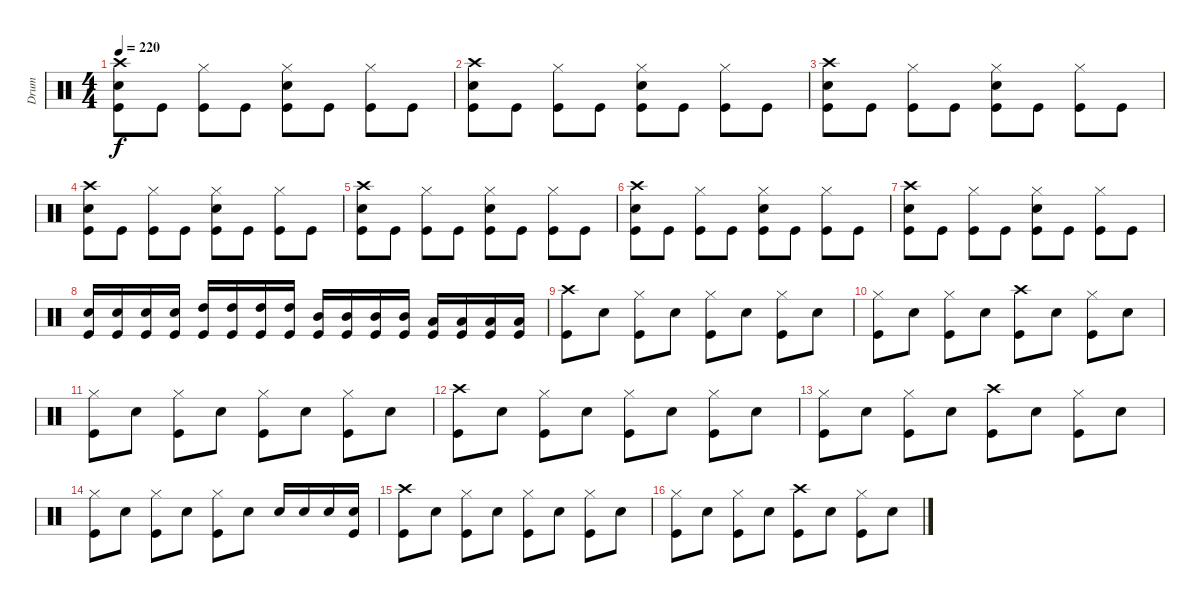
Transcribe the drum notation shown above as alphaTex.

\track ("Drum" "Drum") {instrument percussion}
\staff {score}
\articulation defaults
\ts (4 4)
\tempo 220
\clef neutral
\ks c
("Crash high (hit)" "Snare (hit) 2" "Kick (hit)").8{dy f} "Kick (hit)".8 ("Hi-Hat (closed)" "Kick (hit)").8 "Kick (hit)".8 ("Hi-Hat (closed)" "Snare (hit) 2" "Kick (hit)").8 "Kick (hit)".8 ("Hi-Hat (closed)" "Kick (hit)").8 "Kick (hit)".8 |
("Crash high (hit)" "Snare (hit) 2" "Kick (hit)").8 "Kick (hit)".8 ("Hi-Hat (closed)" "Kick (hit)").8 "Kick (hit)".8 ("Hi-Hat (closed)" "Snare (hit) 2" "Kick (hit)").8 "Kick (hit)".8 ("Hi-Hat (closed)" "Kick (hit)").8 "Kick (hit)".8 |
("Crash high (hit)" "Snare (hit) 2" "Kick (hit)").8 "Kick (hit)".8 ("Hi-Hat (closed)" "Kick (hit)").8 "Kick (hit)".8 ("Hi-Hat (closed)" "Snare (hit) 2" "Kick (hit)").8 "Kick (hit)".8 ("Hi-Hat (closed)" "Kick (hit)").8 "Kick (hit)".8 |
("Crash high (hit)" "Snare (hit) 2" "Kick (hit)").8 "Kick (hit)".8 ("Hi-Hat (closed)" "Kick (hit)").8 "Kick (hit)".8 ("Hi-Hat (closed)" "Snare (hit) 2" "Kick (hit)").8 "Kick (hit)".8 ("Hi-Hat (closed)" "Kick (hit)").8 "Kick (hit)".8 |
("Crash high (hit)" "Snare (hit) 2" "Kick (hit)").8 "Kick (hit)".8 ("Hi-Hat (closed)" "Kick (hit)").8 "Kick (hit)".8 ("Hi-Hat (closed)" "Snare (hit) 2" "Kick (hit)").8 "Kick (hit)".8 ("Hi-Hat (closed)" "Kick (hit)").8 "Kick (hit)".8 |
("Crash high (hit)" "Snare (hit) 2" "Kick (hit)").8 "Kick (hit)".8 ("Hi-Hat (closed)" "Kick (hit)").8 "Kick (hit)".8 ("Hi-Hat (closed)" "Snare (hit) 2" "Kick (hit)").8 "Kick (hit)".8 ("Hi-Hat (closed)" "Kick (hit)").8 "Kick (hit)".8 |
("Crash high (hit)" "Snare (hit) 2" "Kick (hit)").8 "Kick (hit)".8 ("Hi-Hat (closed)" "Kick (hit)").8 "Kick (hit)".8 ("Hi-Hat (closed)" "Snare (hit) 2" "Kick (hit)").8 "Kick (hit)".8 ("Hi-Hat (closed)" "Kick (hit)").8 "Kick (hit)".8 |
("Snare (hit) 2" "Kick (hit)").16 ("Snare (hit) 2" "Kick (hit)").16 ("Snare (hit) 2" "Kick (hit)").16 ("Snare (hit) 2" "Kick (hit)").16 ("High Tom (hit)" "Kick (hit)").16 ("High Tom (hit)" "Kick (hit)").16 ("High Tom (hit)" "Kick (hit)").16 ("High Tom (hit)" "Kick (hit)").16 ("Mid Tom (hit)" "Kick (hit)").16 ("Mid Tom (hit)" "Kick (hit)").16 ("Mid Tom (hit)" "Kick (hit)").16 ("Mid Tom (hit)" "Kick (hit)").16 ("Low Tom (hit)" "Kick (hit)").16 ("Low Tom (hit)" "Kick (hit)").16 ("Low Tom (hit)" "Kick (hit)").16 ("Low Tom (hit)" "Kick (hit)").16 |
("Crash high (hit)" "Kick (hit)").8 "Snare (hit) 2".8 ("Hi-Hat (closed)" "Kick (hit)").8 "Snare (hit) 2".8 ("Hi-Hat (closed)" "Kick (hit)").8 "Snare (hit) 2".8 ("Hi-Hat (closed)" "Kick (hit)").8 "Snare (hit) 2".8 |
("Hi-Hat (closed)" "Kick (hit)").8 "Snare (hit) 2".8 ("Hi-Hat (closed)" "Kick (hit)").8 "Snare (hit) 2".8 ("Crash high (hit)" "Kick (hit)").8 "Snare (hit) 2".8 ("Hi-Hat (closed)" "Kick (hit)").8 "Snare (hit) 2".8 |
("Hi-Hat (closed)" "Kick (hit)").8 "Snare (hit) 2".8 ("Hi-Hat (closed)" "Kick (hit)").8 "Snare (hit) 2".8 ("Hi-Hat (closed)" "Kick (hit)").8 "Snare (hit) 2".8 ("Hi-Hat (closed)" "Kick (hit)").8 "Snare (hit) 2".8 |
("Crash high (hit)" "Kick (hit)").8 "Snare (hit) 2".8 ("Hi-Hat (closed)" "Kick (hit)").8 "Snare (hit) 2".8 ("Hi-Hat (closed)" "Kick (hit)").8 "Snare (hit) 2".8 ("Hi-Hat (closed)" "Kick (hit)").8 "Snare (hit) 2".8 |
("Hi-Hat (closed)" "Kick (hit)").8 "Snare (hit) 2".8 ("Hi-Hat (closed)" "Kick (hit)").8 "Snare (hit) 2".8 ("Crash high (hit)" "Kick (hit)").8 "Snare (hit) 2".8 ("Hi-Hat (closed)" "Kick (hit)").8 "Snare (hit) 2".8 |
("Hi-Hat (closed)" "Kick (hit)").8 "Snare (hit) 2".8 ("Hi-Hat (closed)" "Kick (hit)").8 "Snare (hit) 2".8 ("Hi-Hat (closed)" "Kick (hit)").8 "Snare (hit) 2".8 "Snare (hit) 2".16 "Snare (hit) 2".16 "Snare (hit) 2".16 ("Snare (hit) 2" "Kick (hit)").16 |
("Crash high (hit)" "Kick (hit)").8 "Snare (hit) 2".8 ("Hi-Hat (closed)" "Kick (hit)").8 "Snare (hit) 2".8 ("Hi-Hat (closed)" "Kick (hit)").8 "Snare (hit) 2".8 ("Hi-Hat (closed)" "Kick (hit)").8 "Snare (hit) 2".8 |
("Hi-Hat (closed)" "Kick (hit)").8 "Snare (hit) 2".8 ("Hi-Hat (closed)" "Kick (hit)").8 "Snare (hit) 2".8 ("Crash high (hit)" "Kick (hit)").8 "Snare (hit) 2".8 ("Hi-Hat (closed)" "Kick (hit)").8 "Snare (hit) 2".8
